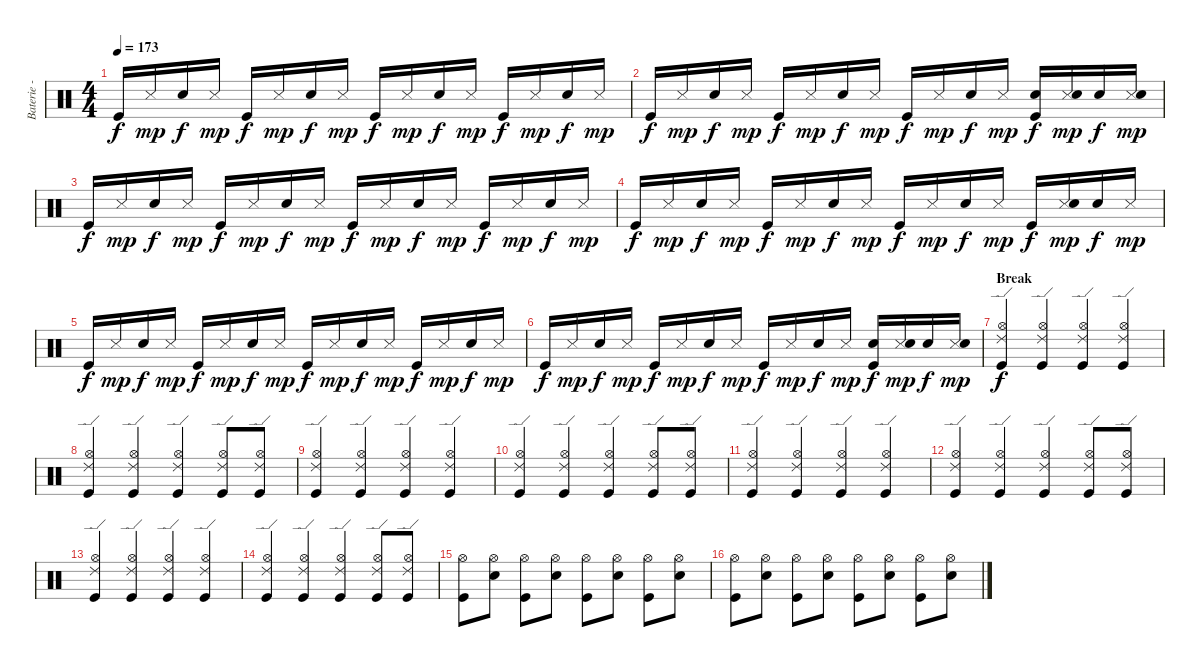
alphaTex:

\track ("Baterie - Guillaume" "Baterie - ") {instrument percussion}
\staff {score}
\articulation defaults
\ts (4 4)
\tempo 173
\clef neutral
\ks c "Kick (hit)".16{dy f} "Snare (side stick) 3".16{dy mp} "Snare (hit) 2".16{dy f} "Snare (side stick) 3".16{dy mp} "Kick (hit)".16{dy f} "Snare (side stick) 3".16{dy mp} "Snare (hit) 2".16{dy f} "Snare (side stick) 3".16{dy mp} "Kick (hit)".16{dy f} "Snare (side stick) 3".16{dy mp} "Snare (hit) 2".16{dy f} "Snare (side stick) 3".16{dy mp} "Kick (hit)".16{dy f} "Snare (side stick) 3".16{dy mp} "Snare (hit) 2".16{dy f} "Snare (side stick) 3".16{dy mp}
|
"Kick (hit)".16{dy f} "Snare (side stick) 3".16{dy mp} "Snare (hit) 2".16{dy f} "Snare (side stick) 3".16{dy mp} "Kick (hit)".16{dy f} "Snare (side stick) 3".16{dy mp} "Snare (hit) 2".16{dy f} "Snare (side stick) 3".16{dy mp} "Kick (hit)".16{dy f} "Snare (side stick) 3".16{dy mp} "Snare (hit) 2".16{dy f} "Snare (side stick) 3".16{dy mp} ("Snare (hit) 2" "Kick (hit)").16{dy f} ("Snare (side stick) 3" "Snare (hit) 2").16{dy mp} "Snare (hit) 2".16{dy f} ("Snare (side stick) 3" "Snare (hit) 2").16{dy mp} |
"Kick (hit)".16{dy f} "Snare (side stick) 3".16{dy mp} "Snare (hit) 2".16{dy f} "Snare (side stick) 3".16{dy mp} "Kick (hit)".16{dy f} "Snare (side stick) 3".16{dy mp} "Snare (hit) 2".16{dy f} "Snare (side stick) 3".16{dy mp} "Kick (hit)".16{dy f} "Snare (side stick) 3".16{dy mp} "Snare (hit) 2".16{dy f} "Snare (side stick) 3".16{dy mp} "Kick (hit)".16{dy f} "Snare (side stick) 3".16{dy mp} "Snare (hit) 2".16{dy f} "Snare (side stick) 3".16{dy mp} |
"Kick (hit)".16{dy f} "Snare (side stick) 3".16{dy mp} "Snare (hit) 2".16{dy f} "Snare (side stick) 3".16{dy mp} "Kick (hit)".16{dy f} "Snare (side stick) 3".16{dy mp} "Snare (hit) 2".16{dy f} "Snare (side stick) 3".16{dy mp} "Kick (hit)".16{dy f} "Snare (side stick) 3".16{dy mp} "Snare (hit) 2".16{dy f} "Snare (side stick) 3".16{dy mp} "Kick (hit)".16{dy f} ("Snare (side stick) 3" "Snare (hit) 2").16{dy mp} "Snare (hit) 2".16{dy f} "Snare (side stick) 3".16{dy mp} |
"Kick (hit)".16{dy f} "Snare (side stick) 3".16{dy mp} "Snare (hit) 2".16{dy f} "Snare (side stick) 3".16{dy mp} "Kick (hit)".16{dy f} "Snare (side stick) 3".16{dy mp} "Snare (hit) 2".16{dy f} "Snare (side stick) 3".16{dy mp} "Kick (hit)".16{dy f} "Snare (side stick) 3".16{dy mp} "Snare (hit) 2".16{dy f} "Snare (side stick) 3".16{dy mp} "Kick (hit)".16{dy f} "Snare (side stick) 3".16{dy mp} "Snare (hit) 2".16{dy f} "Snare (side stick) 3".16{dy mp} |
"Kick (hit)".16{dy f} "Snare (side stick) 3".16{dy mp} "Snare (hit) 2".16{dy f} "Snare (side stick) 3".16{dy mp} "Kick (hit)".16{dy f} "Snare (side stick) 3".16{dy mp} "Snare (hit) 2".16{dy f} "Snare (side stick) 3".16{dy mp} "Kick (hit)".16{dy f} "Snare (side stick) 3".16{dy mp} "Snare (hit) 2".16{dy f} "Snare (side stick) 3".16{dy mp} ("Snare (hit) 2" "Kick (hit)").16{dy f} ("Snare (side stick) 3" "Snare (hit) 2").16{dy mp} "Snare (hit) 2".16{dy f} ("Snare (side stick) 3" "Snare (hit) 2").16{dy mp} |
\section ("" "Break")
("Hi-Hat (open)" "Ride (edge) 2" "Kick (hit)").4{dy f} ("Hi-Hat (open)" "Ride (edge) 2" "Kick (hit)").4 ("Hi-Hat (open)" "Ride (edge) 2" "Kick (hit)").4 ("Hi-Hat (open)" "Ride (edge) 2" "Kick (hit)").4 |
("Hi-Hat (open)" "Ride (edge) 2" "Kick (hit)").4 ("Hi-Hat (open)" "Ride (edge) 2" "Kick (hit)").4 ("Hi-Hat (open)" "Ride (edge) 2" "Kick (hit)").4 ("Hi-Hat (open)" "Ride (edge) 2" "Kick (hit)").8 ("Hi-Hat (open)" "Ride (edge) 2" "Kick (hit)").8 |
("Hi-Hat (open)" "Ride (edge) 2" "Kick (hit)").4 ("Hi-Hat (open)" "Ride (edge) 2" "Kick (hit)").4 ("Hi-Hat (open)" "Ride (edge) 2" "Kick (hit)").4 ("Hi-Hat (open)" "Ride (edge) 2" "Kick (hit)").4 |
("Hi-Hat (open)" "Ride (edge) 2" "Kick (hit)").4 ("Hi-Hat (open)" "Ride (edge) 2" "Kick (hit)").4 ("Hi-Hat (open)" "Ride (edge) 2" "Kick (hit)").4 ("Hi-Hat (open)" "Ride (edge) 2" "Kick (hit)").8 ("Hi-Hat (open)" "Ride (edge) 2" "Kick (hit)").8 |
("Hi-Hat (open)" "Ride (edge) 2" "Kick (hit)").4 ("Hi-Hat (open)" "Ride (edge) 2" "Kick (hit)").4 ("Hi-Hat (open)" "Ride (edge) 2" "Kick (hit)").4 ("Hi-Hat (open)" "Ride (edge) 2" "Kick (hit)").4 |
("Hi-Hat (open)" "Ride (edge) 2" "Kick (hit)").4 ("Hi-Hat (open)" "Ride (edge) 2" "Kick (hit)").4 ("Hi-Hat (open)" "Ride (edge) 2" "Kick (hit)").4 ("Hi-Hat (open)" "Ride (edge) 2" "Kick (hit)").8 ("Hi-Hat (open)" "Ride (edge) 2" "Kick (hit)").8 |
("Hi-Hat (open)" "Ride (edge) 2" "Kick (hit)").4 ("Hi-Hat (open)" "Ride (edge) 2" "Kick (hit)").4 ("Hi-Hat (open)" "Ride (edge) 2" "Kick (hit)").4 ("Hi-Hat (open)" "Ride (edge) 2" "Kick (hit)").4 |
("Hi-Hat (open)" "Ride (edge) 2" "Kick (hit)").4 ("Hi-Hat (open)" "Ride (edge) 2" "Kick (hit)").4 ("Hi-Hat (open)" "Ride (edge) 2" "Kick (hit)").4 ("Hi-Hat (open)" "Ride (edge) 2" "Kick (hit)").8 ("Hi-Hat (open)" "Ride (edge) 2" "Kick (hit)").8 |
("Hi-Hat (open)" "Kick (hit)").8 ("Hi-Hat (open)" "Snare (hit) 2").8 ("Hi-Hat (open)" "Kick (hit)").8 ("Hi-Hat (open)" "Snare (hit) 2").8 ("Hi-Hat (open)" "Kick (hit)").8 ("Hi-Hat (open)" "Snare (hit) 2").8 ("Hi-Hat (open)" "Kick (hit)").8 ("Hi-Hat (open)" "Snare (hit) 2").8 |
("Hi-Hat (open)" "Kick (hit)").8 ("Hi-Hat (open)" "Snare (hit) 2").8 ("Hi-Hat (open)" "Kick (hit)").8 ("Hi-Hat (open)" "Snare (hit) 2").8 ("Hi-Hat (open)" "Kick (hit)").8 ("Hi-Hat (open)" "Snare (hit) 2").8 ("Hi-Hat (open)" "Kick (hit)").8 ("Hi-Hat (open)" "Snare (hit) 2").8
